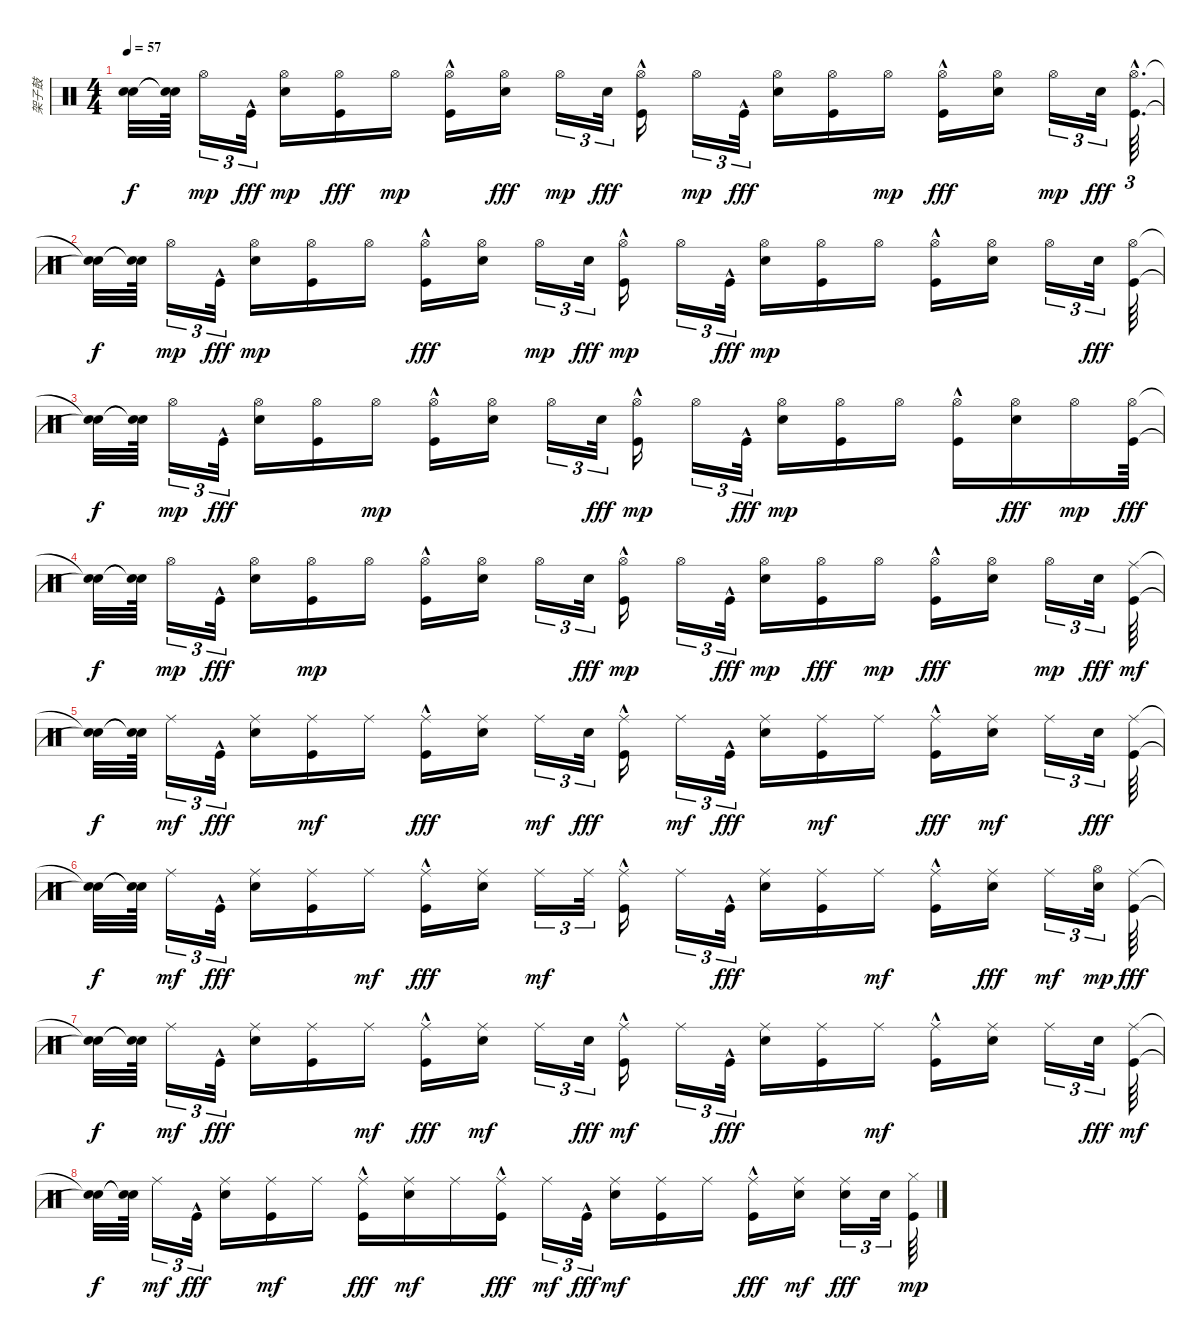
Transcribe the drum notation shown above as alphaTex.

\track ("架子鼓" "架子鼓") {instrument percussion}
\staff {score}
\articulation defaults
\ts (4 4)
\tempo 57
\clef neutral
\ks c
("Snare (hit)"{t} "Snare (hit)"{t}).32{dy f} ("Snare (hit)"{t} "Snare (hit)"{t}).64 "Hi-Hat (open)".16{tu (3 2) dy mp} "Kick (hit)"{hac}.32{tu (3 2) dy fff} ("Electric Snare (hit)" "Hi-Hat (open)").16{dy mp} ("Hi-Hat (open)" "Kick (hit)").16{dy fff} "Hi-Hat (open)".16{dy mp} ("Kick (hit)"{hac} "Hi-Hat (open)").16 ("Hi-Hat (open)" "Electric Snare (hit)").16{dy fff} "Hi-Hat (open)".16{tu (3 2) dy mp} "Electric Snare (hit)".32{tu (3 2) dy fff} ("Hi-Hat (open)" "Kick (hit)"{hac}).16 "Hi-Hat (open)".16{tu (3 2) dy mp} "Kick (hit)"{hac}.32{tu (3 2) dy fff} ("Hi-Hat (open)" "Electric Snare (hit)").16 ("Hi-Hat (open)" "Kick (hit)").16 "Hi-Hat (open)".16{dy mp} ("Hi-Hat (open)" "Kick (hit)"{hac}).16{dy fff} ("Hi-Hat (open)" "Electric Snare (hit)").16 "Hi-Hat (open)".16{tu (3 2) dy mp} "Electric Snare (hit)".32{tu (3 2) dy fff} ("Hi-Hat (open)"{hac} "Kick (hit)"{hac}).64{d tu (3 2)} |
("Snare (hit)"{t} "Snare (hit)"{t}).32{dy f} ("Snare (hit)"{t} "Snare (hit)"{t}).64 "Hi-Hat (open)".16{tu (3 2) dy mp} "Kick (hit)"{hac}.32{tu (3 2) dy fff} ("Electric Snare (hit)" "Hi-Hat (open)").16{dy mp} ("Kick (hit)" "Hi-Hat (open)").16 "Hi-Hat (open)".16 ("Hi-Hat (open)" "Kick (hit)"{hac}).16{dy fff} ("Hi-Hat (open)" "Electric Snare (hit)").16 "Hi-Hat (open)".16{tu (3 2) dy mp} "Electric Snare (hit)".32{tu (3 2) dy fff} ("Kick (hit)"{hac} "Hi-Hat (open)").16{dy mp} "Hi-Hat (open)".16{tu (3 2)} "Kick (hit)"{hac}.32{tu (3 2) dy fff} ("Electric Snare (hit)" "Hi-Hat (open)").16{dy mp} ("Kick (hit)" "Hi-Hat (open)").16 "Hi-Hat (open)".16 ("Kick (hit)"{hac} "Hi-Hat (open)").16 ("Electric Snare (hit)" "Hi-Hat (open)").16 "Hi-Hat (open)".16{tu (3 2)} "Electric Snare (hit)".32{tu (3 2) dy fff} ("Hi-Hat (open)" "Kick (hit)").64 |
("Snare (hit)"{t} "Snare (hit)"{t}).32{dy f} ("Snare (hit)"{t} "Snare (hit)"{t}).64 "Hi-Hat (open)".16{tu (3 2) dy mp} "Kick (hit)"{hac}.32{tu (3 2) dy fff} ("Hi-Hat (open)" "Electric Snare (hit)").16 ("Hi-Hat (open)" "Kick (hit)").16 "Hi-Hat (open)".16{dy mp} ("Kick (hit)"{hac} "Hi-Hat (open)").16 ("Electric Snare (hit)" "Hi-Hat (open)").16 "Hi-Hat (open)".16{tu (3 2)} "Electric Snare (hit)".32{tu (3 2) dy fff} ("Kick (hit)"{hac} "Hi-Hat (open)").16{dy mp} "Hi-Hat (open)".16{tu (3 2)} "Kick (hit)"{hac}.32{tu (3 2) dy fff} ("Electric Snare (hit)" "Hi-Hat (open)").16{dy mp} ("Kick (hit)" "Hi-Hat (open)").16 "Hi-Hat (open)".16 ("Kick (hit)"{hac} "Hi-Hat (open)").16 ("Hi-Hat (open)" "Electric Snare (hit)").16{dy fff} "Hi-Hat (open)".16{dy mp} ("Hi-Hat (open)" "Kick (hit)").64{dy fff} |
("Snare (hit)"{t} "Snare (hit)"{t}).32{dy f} ("Snare (hit)"{t} "Snare (hit)"{t}).64 "Hi-Hat (open)".16{tu (3 2) dy mp} "Kick (hit)"{hac}.32{tu (3 2) dy fff} ("Hi-Hat (open)" "Electric Snare (hit)").16 ("Kick (hit)" "Hi-Hat (open)").16{dy mp} "Hi-Hat (open)".16 ("Kick (hit)"{hac} "Hi-Hat (open)").16 ("Electric Snare (hit)" "Hi-Hat (open)").16 "Hi-Hat (open)".16{tu (3 2)} "Electric Snare (hit)".32{tu (3 2) dy fff} ("Kick (hit)"{hac} "Hi-Hat (open)").16{dy mp} "Hi-Hat (open)".16{tu (3 2)} "Kick (hit)"{hac}.32{tu (3 2) dy fff} ("Electric Snare (hit)" "Hi-Hat (open)").16{dy mp} ("Hi-Hat (open)" "Kick (hit)").16{dy fff} "Hi-Hat (open)".16{dy mp} ("Hi-Hat (open)" "Kick (hit)"{hac}).16{dy fff} ("Hi-Hat (open)" "Electric Snare (hit)").16 "Hi-Hat (open)".16{tu (3 2) dy mp} "Electric Snare (hit)".32{tu (3 2) dy fff} ("Kick (hit)" "Ride (middle)").64{dy mf} |
("Snare (hit)"{t} "Snare (hit)"{t}).32{dy f} ("Snare (hit)"{t} "Snare (hit)"{t}).64 "Ride (middle)".16{tu (3 2) dy mf} "Kick (hit)"{hac}.32{tu (3 2) dy fff} ("Ride (middle)" "Electric Snare (hit)").16 ("Kick (hit)" "Ride (middle)").16{dy mf} "Ride (middle)".16 ("Ride (middle)" "Kick (hit)"{hac}).16{dy fff} ("Ride (middle)" "Electric Snare (hit)").16 "Ride (middle)".16{tu (3 2) dy mf} "Electric Snare (hit)".32{tu (3 2) dy fff} ("Ride (middle)" "Kick (hit)"{hac}).16 "Ride (middle)".16{tu (3 2) dy mf} "Kick (hit)"{hac}.32{tu (3 2) dy fff} ("Ride (middle)" "Electric Snare (hit)").16 ("Kick (hit)" "Ride (middle)").16{dy mf} "Ride (middle)".16 ("Ride (middle)" "Kick (hit)"{hac}).16{dy fff} ("Electric Snare (hit)" "Ride (middle)").16{dy mf} "Ride (middle)".16{tu (3 2)} "Electric Snare (hit)".32{tu (3 2) dy fff} ("Ride (middle)" "Kick (hit)").64 |
("Snare (hit)"{t} "Snare (hit)"{t}).32{dy f} ("Snare (hit)"{t} "Snare (hit)"{t}).64 "Ride (middle)".16{tu (3 2) dy mf} "Kick (hit)"{hac}.32{tu (3 2) dy fff} ("Ride (middle)" "Electric Snare (hit)").16 ("Ride (middle)" "Kick (hit)").16 "Ride (middle)".16{dy mf} ("Ride (middle)" "Kick (hit)"{hac}).16{dy fff} ("Ride (middle)" "Electric Snare (hit)").16 "Ride (middle)".16{tu (3 2) dy mf} "Ride (middle)".32{tu (3 2)} ("Kick (hit)"{hac} "Ride (middle)").16 "Ride (middle)".16{tu (3 2)} "Kick (hit)"{hac}.32{tu (3 2) dy fff} ("Ride (middle)" "Electric Snare (hit)").16 ("Ride (middle)" "Kick (hit)").16 "Ride (middle)".16{dy mf} ("Kick (hit)"{hac} "Ride (middle)").16 ("Ride (middle)" "Electric Snare (hit)").16{dy fff} "Ride (middle)".16{tu (3 2) dy mf} ("Electric Snare (hit)" "Hi-Hat (open)").32{tu (3 2) dy mp} ("Ride (middle)" "Kick (hit)").64{dy fff} |
("Snare (hit)"{t} "Snare (hit)"{t}).32{dy f} ("Snare (hit)"{t} "Snare (hit)"{t}).64 "Ride (middle)".16{tu (3 2) dy mf} "Kick (hit)"{hac}.32{tu (3 2) dy fff} ("Ride (middle)" "Electric Snare (hit)").16 ("Ride (middle)" "Kick (hit)").16 "Ride (middle)".16{dy mf} ("Ride (middle)" "Kick (hit)"{hac}).16{dy fff} ("Electric Snare (hit)" "Ride (middle)").16{dy mf} "Ride (middle)".16{tu (3 2)} "Electric Snare (hit)".32{tu (3 2) dy fff} ("Kick (hit)"{hac} "Ride (middle)").16{dy mf} "Ride (middle)".16{tu (3 2)} "Kick (hit)"{hac}.32{tu (3 2) dy fff} ("Ride (middle)" "Electric Snare (hit)").16 ("Ride (middle)" "Kick (hit)").16 "Ride (middle)".16{dy mf} ("Kick (hit)"{hac} "Ride (middle)").16 ("Electric Snare (hit)" "Ride (middle)").16 "Ride (middle)".16{tu (3 2)} "Electric Snare (hit)".32{tu (3 2) dy fff} ("Kick (hit)" "Ride (middle)").64{dy mf} |
("Snare (hit)"{t} "Snare (hit)"{t}).32{dy f} ("Snare (hit)"{t} "Snare (hit)"{t}).64 "Ride (middle)".16{tu (3 2) dy mf} "Kick (hit)"{hac}.32{tu (3 2) dy fff} ("Ride (middle)" "Electric Snare (hit)").16 ("Kick (hit)" "Ride (middle)").16{dy mf} "Ride (middle)".16 ("Ride (middle)" "Kick (hit)"{hac}).16{dy fff} ("Electric Snare (hit)" "Ride (middle)").16{dy mf} "Ride (middle)".16 ("Ride (middle)" "Kick (hit)"{hac}).16{dy fff} "Ride (middle)".16{tu (3 2) dy mf} "Kick (hit)"{hac}.32{tu (3 2) dy fff} ("Electric Snare (hit)" "Ride (middle)").16{dy mf} ("Kick (hit)" "Ride (middle)").16 "Ride (middle)".16 ("Ride (middle)" "Kick (hit)"{hac}).16{dy fff} ("Electric Snare (hit)" "Ride (middle)").16{dy mf} ("Ride (middle)" "Electric Snare (hit)").16{tu (3 2) dy fff} "Electric Snare (hit)".32{tu (3 2)} ("Kick (hit)" "Hi-Hat (closed)").64{dy mp}
